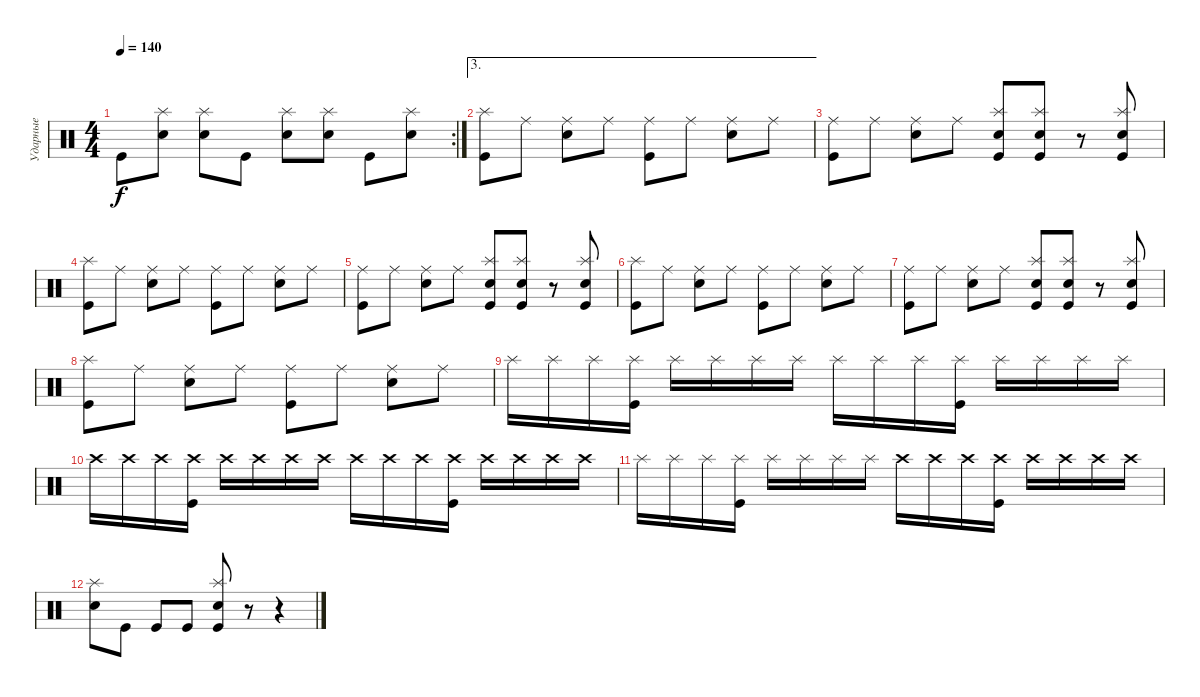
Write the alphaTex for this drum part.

\track ("Ударные" "Ударные") {instrument percussion}
\staff {score}
\articulation defaults
\rc 2
\ts (4 4)
\tempo 140
\clef neutral
\ks c "Kick (hit)".8{dy f}
("Splash (hit)" "Snare (hit) 2").8 ("Splash (hit)" "Snare (hit) 2").8 "Kick (hit)".8 ("Splash (hit)" "Snare (hit) 2").8 ("Splash (hit)" "Snare (hit) 2").8 "Kick (hit)".8 ("Splash (hit)" "Snare (hit) 2").8 |
\ae 3
("Splash (hit)" "Kick (hit)").8 "Ride (middle)".8 ("Ride (middle)" "Snare (hit) 2").8 "Ride (middle)".8 ("Ride (middle)" "Kick (hit)").8 "Ride (middle)".8 ("Ride (middle)" "Snare (hit) 2").8 "Ride (middle)".8 |
("Ride (middle)" "Kick (hit)").8 "Ride (middle)".8 ("Ride (middle)" "Snare (hit) 2").8 "Ride (middle)".8 ("Splash (hit)" "Snare (hit) 2" "Kick (hit)").8 ("Splash (hit)" "Snare (hit) 2" "Kick (hit)").8 r.8 ("Splash (hit)" "Snare (hit) 2" "Kick (hit)").8 |
("Splash (hit)" "Kick (hit)").8 "Ride (middle)".8 ("Ride (middle)" "Snare (hit) 2").8 "Ride (middle)".8 ("Ride (middle)" "Kick (hit)").8 "Ride (middle)".8 ("Ride (middle)" "Snare (hit) 2").8 "Ride (middle)".8 |
("Ride (middle)" "Kick (hit)").8 "Ride (middle)".8 ("Ride (middle)" "Snare (hit) 2").8 "Ride (middle)".8 ("Splash (hit)" "Snare (hit) 2" "Kick (hit)").8 ("Splash (hit)" "Snare (hit) 2" "Kick (hit)").8 r.8 ("Splash (hit)" "Snare (hit) 2" "Kick (hit)").8 |
("Splash (hit)" "Kick (hit)").8 "Ride (middle)".8 ("Ride (middle)" "Snare (hit) 2").8 "Ride (middle)".8 ("Ride (middle)" "Kick (hit)").8 "Ride (middle)".8 ("Ride (middle)" "Snare (hit) 2").8 "Ride (middle)".8 |
("Ride (middle)" "Kick (hit)").8 "Ride (middle)".8 ("Ride (middle)" "Snare (hit) 2").8 "Ride (middle)".8 ("Splash (hit)" "Snare (hit) 2" "Kick (hit)").8 ("Splash (hit)" "Snare (hit) 2" "Kick (hit)").8 r.8 ("Splash (hit)" "Snare (hit) 2" "Kick (hit)").8 |
("Splash (hit)" "Kick (hit)").8 "Ride (middle)".8 ("Ride (middle)" "Snare (hit) 2").8 "Ride (middle)".8 ("Ride (middle)" "Kick (hit)").8 "Ride (middle)".8 ("Ride (middle)" "Snare (hit) 2").8 "Ride (middle)".8 |
"Splash (hit)".16 "Splash (hit)".16 "Splash (hit)".16 ("Splash (hit)" "Kick (hit)").16 "Splash (hit)".16 "Splash (hit)".16 "Splash (hit)".16 "Splash (hit)".16 "Splash (hit)".16 "Splash (hit)".16 "Splash (hit)".16 ("Splash (hit)" "Kick (hit)").16 "Splash (hit)".16 "Splash (hit)".16 "Splash (hit)".16 "Splash (hit)".16 |
"Crash high (hit)".16 "Crash high (hit)".16 "Crash high (hit)".16 ("Crash high (hit)" "Kick (hit)").16 "Crash high (hit)".16 "Crash high (hit)".16 "Crash high (hit)".16 "Crash high (hit)".16 "Crash high (hit)".16 "Crash high (hit)".16 "Crash high (hit)".16 ("Crash high (hit)" "Kick (hit)").16 "Crash high (hit)".16 "Crash high (hit)".16 "Crash high (hit)".16 "Crash high (hit)".16 |
"Splash (hit)".16 "Splash (hit)".16 "Splash (hit)".16 ("Splash (hit)" "Kick (hit)").16 "Splash (hit)".16 "Splash (hit)".16 "Splash (hit)".16 "Splash (hit)".16 "Crash high (hit)".16 "Crash high (hit)".16 "Crash high (hit)".16 ("Crash high (hit)" "Kick (hit)").16 "Crash high (hit)".16 "Crash high (hit)".16 "Crash high (hit)".16 "Crash high (hit)".16 |
("Splash (hit)" "Snare (hit) 2").8 "Kick (hit)".8 "Kick (hit)".8 "Kick (hit)".8 ("Splash (hit)" "Snare (hit) 2" "Kick (hit)").8 r.8 r.4
